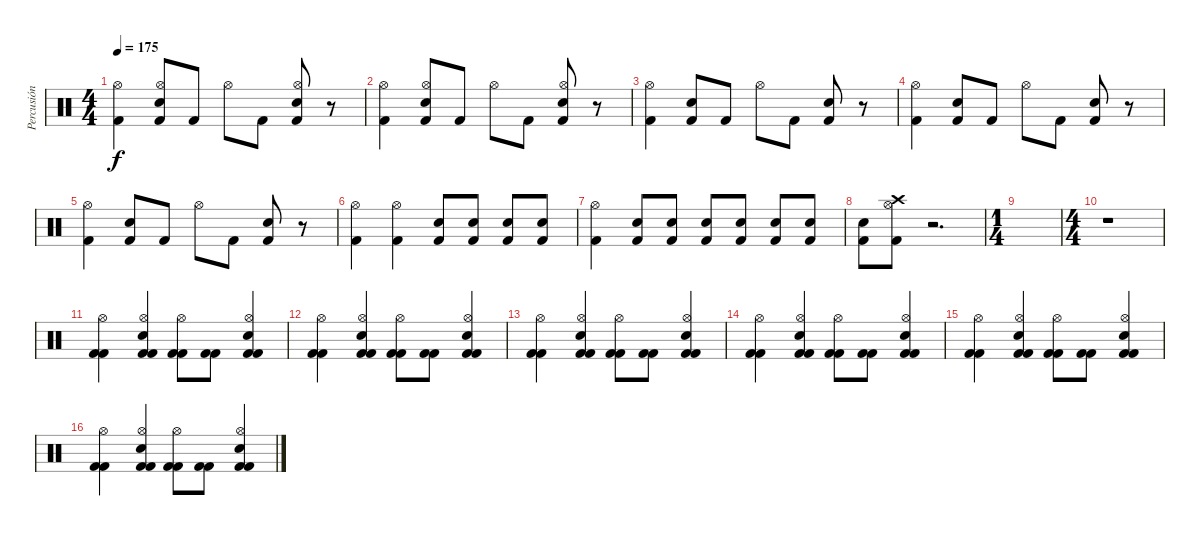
\track ("Percusión" "Percusión") {instrument percussion}
\staff {score}
\articulation defaults
\ts (4 4)
\tempo 175
\clef neutral
\ks c
("Kick (hit) 2" "Hi-Hat (open)").4{dy f} ("Kick (hit) 2" "Electric Snare (hit)" "Hi-Hat (open)").8 "Kick (hit) 2".8 "Hi-Hat (open)".8 "Kick (hit) 2".8 ("Kick (hit) 2" "Electric Snare (hit)" "Hi-Hat (open)").8 r.8 |
("Kick (hit) 2" "Hi-Hat (open)").4 ("Kick (hit) 2" "Electric Snare (hit)" "Hi-Hat (open)").8 "Kick (hit) 2".8 "Hi-Hat (open)".8 "Kick (hit) 2".8 ("Kick (hit) 2" "Electric Snare (hit)" "Hi-Hat (open)").8 r.8 |
("Kick (hit) 2" "Hi-Hat (open)").4 ("Kick (hit) 2" "Electric Snare (hit)").8 "Kick (hit) 2".8 "Hi-Hat (open)".8 "Kick (hit) 2".8 ("Kick (hit) 2" "Electric Snare (hit)").8 r.8 |
("Kick (hit) 2" "Hi-Hat (open)").4 ("Kick (hit) 2" "Electric Snare (hit)").8 "Kick (hit) 2".8 "Hi-Hat (open)".8 "Kick (hit) 2".8 ("Kick (hit) 2" "Electric Snare (hit)").8 r.8 |
("Kick (hit) 2" "Hi-Hat (open)").4 ("Kick (hit) 2" "Electric Snare (hit)").8 "Kick (hit) 2".8 "Hi-Hat (open)".8 "Kick (hit) 2".8 ("Kick (hit) 2" "Electric Snare (hit)").8 r.8 |
("Kick (hit) 2" "Hi-Hat (open)").4 ("Kick (hit) 2" "Hi-Hat (open)").4 ("Kick (hit) 2" "Electric Snare (hit)").8 ("Kick (hit) 2" "Electric Snare (hit)").8 ("Kick (hit) 2" "Electric Snare (hit)").8 ("Kick (hit) 2" "Electric Snare (hit)").8 |
("Kick (hit) 2" "Hi-Hat (open)").4 ("Kick (hit) 2" "Electric Snare (hit)").8 ("Kick (hit) 2" "Electric Snare (hit)").8 ("Kick (hit) 2" "Electric Snare (hit)").8 ("Kick (hit) 2" "Electric Snare (hit)").8 ("Kick (hit) 2" "Electric Snare (hit)").8 ("Kick (hit) 2" "Electric Snare (hit)").8 |
("Kick (hit) 2" "Electric Snare (hit)").8 ("Kick (hit) 2" "Hi-Hat (open)" "Crash high (hit)").8 r.2{d} |
\ts (1 4)
|
\ts (4 4)
r.1 |
("Kick (hit) 2" "Kick (hit) 2" "Hi-Hat (open)").4 ("Kick (hit) 2" "Kick (hit) 2" "Electric Snare (hit)" "Hi-Hat (open)").4 ("Kick (hit) 2" "Kick (hit) 2" "Hi-Hat (open)").8 ("Kick (hit) 2" "Kick (hit) 2").8 ("Kick (hit) 2" "Kick (hit) 2" "Electric Snare (hit)" "Hi-Hat (open)").4 |
("Kick (hit) 2" "Kick (hit) 2" "Hi-Hat (open)").4 ("Kick (hit) 2" "Kick (hit) 2" "Electric Snare (hit)" "Hi-Hat (open)").4 ("Kick (hit) 2" "Kick (hit) 2" "Hi-Hat (open)").8 ("Kick (hit) 2" "Kick (hit) 2").8 ("Kick (hit) 2" "Kick (hit) 2" "Electric Snare (hit)" "Hi-Hat (open)").4 |
("Kick (hit) 2" "Kick (hit) 2" "Hi-Hat (open)").4 ("Kick (hit) 2" "Kick (hit) 2" "Electric Snare (hit)" "Hi-Hat (open)").4 ("Kick (hit) 2" "Kick (hit) 2" "Hi-Hat (open)").8 ("Kick (hit) 2" "Kick (hit) 2").8 ("Kick (hit) 2" "Kick (hit) 2" "Electric Snare (hit)" "Hi-Hat (open)").4 |
("Kick (hit) 2" "Kick (hit) 2" "Hi-Hat (open)").4 ("Kick (hit) 2" "Kick (hit) 2" "Electric Snare (hit)" "Hi-Hat (open)").4 ("Kick (hit) 2" "Kick (hit) 2" "Hi-Hat (open)").8 ("Kick (hit) 2" "Kick (hit) 2").8 ("Kick (hit) 2" "Kick (hit) 2" "Electric Snare (hit)" "Hi-Hat (open)").4 |
("Kick (hit) 2" "Kick (hit) 2" "Hi-Hat (open)").4 ("Kick (hit) 2" "Kick (hit) 2" "Electric Snare (hit)" "Hi-Hat (open)").4 ("Kick (hit) 2" "Kick (hit) 2" "Hi-Hat (open)").8 ("Kick (hit) 2" "Kick (hit) 2").8 ("Kick (hit) 2" "Kick (hit) 2" "Electric Snare (hit)" "Hi-Hat (open)").4 |
("Kick (hit) 2" "Kick (hit) 2" "Hi-Hat (open)").4 ("Kick (hit) 2" "Kick (hit) 2" "Electric Snare (hit)" "Hi-Hat (open)").4 ("Kick (hit) 2" "Kick (hit) 2" "Hi-Hat (open)").8 ("Kick (hit) 2" "Kick (hit) 2").8 ("Kick (hit) 2" "Kick (hit) 2" "Electric Snare (hit)" "Hi-Hat (open)").4
